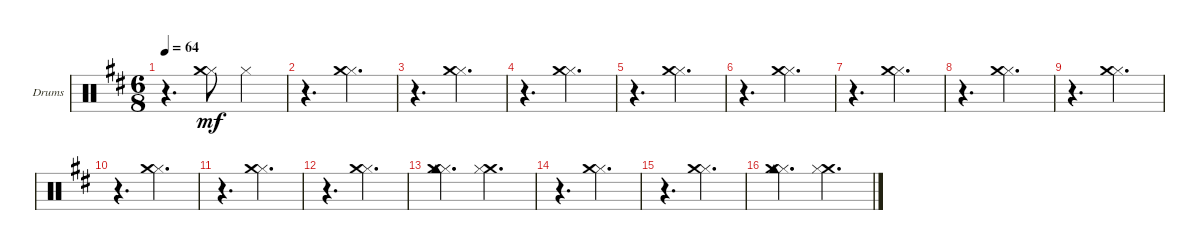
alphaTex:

\defaultSystemsLayout 4
\bracketExtendMode groupsimilarinstruments
\firstSystemTrackNameOrientation horizontal
\otherSystemsTrackNameOrientation horizontal
\track ("Drumkit" "Drums") {instrument percussion}
\staff {score}
\articulation defaults
\ts (6 8)
\tempo 64
\clef neutral
\ks d
r.4{d dy mf} ("Hi-Hat (closed)" "Crash medium (hit)").8 "Hi-Hat (closed)".4 |
r.4{d} ("Hi-Hat (closed)" "Crash medium (hit)").4{d} |
r.4{d} ("Hi-Hat (closed)" "Crash medium (hit)").4{d} |
r.4{d} ("Hi-Hat (closed)" "Crash medium (hit)").4{d} |
r.4{d} ("Hi-Hat (closed)" "Crash medium (hit)").4{d} |
r.4{d} ("Hi-Hat (closed)" "Crash medium (hit)").4{d} |
r.4{d} ("Hi-Hat (closed)" "Crash medium (hit)").4{d} |
r.4{d} ("Hi-Hat (closed)" "Crash medium (hit)").4{d} |
r.4{d} ("Hi-Hat (closed)" "Crash medium (hit)").4{d} |
r.4{d} ("Hi-Hat (closed)" "Crash medium (hit)").4{d} |
r.4{d} ("Hi-Hat (closed)" "Crash medium (hit)").4{d} |
r.4{d} ("Hi-Hat (closed)" "Crash medium (hit)").4{d} |
("Hi-Hat (closed)" "Cowbell high (hit)" "Crash medium (hit)").4{d} ("Crash medium (hit)" "Hi-Hat (closed)").4{d} |
r.4{d} ("Hi-Hat (closed)" "Crash medium (hit)").4{d} |
r.4{d} ("Hi-Hat (closed)" "Crash medium (hit)").4{d} |
("Hi-Hat (closed)" "Cowbell high (hit)" "Crash medium (hit)").4{d} ("Crash medium (hit)" "Hi-Hat (closed)").4{d}
